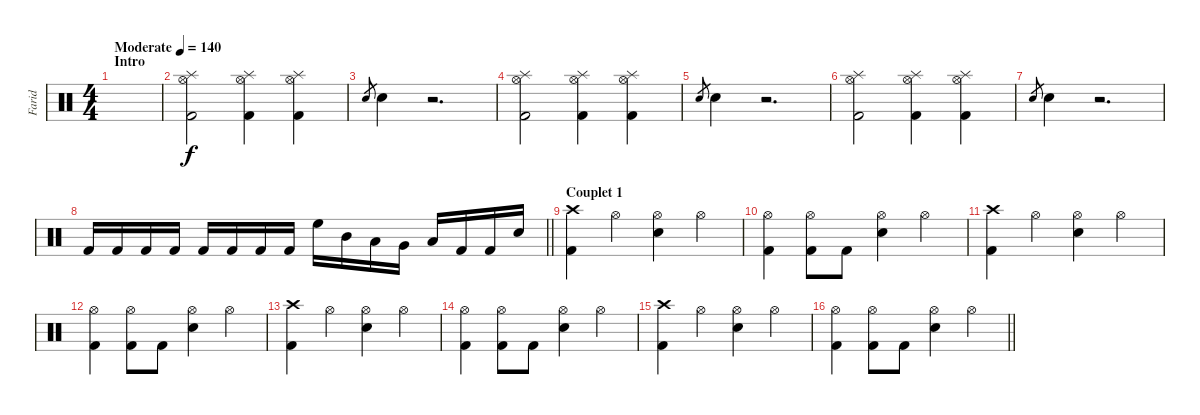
\track ("Farid" "Farid") {instrument percussion}
\staff {score}
\articulation defaults
\ts (4 4)
\section ("" "Intro")
\tempo (140 "Moderate")
\clef neutral
\ks c
|
("Hi-Hat (open)" "Splash (hit)" "Kick (hit) 2").2 ("Hi-Hat (open)" "Splash (hit)" "Kick (hit) 2").4 ("Hi-Hat (open)" "Splash (hit)" "Kick (hit) 2").4 |
"Snare (hit) 2".8{gr} "Snare (hit) 2".4 r.2{d} |
("Hi-Hat (open)" "Splash (hit)" "Kick (hit) 2").2 ("Hi-Hat (open)" "Splash (hit)" "Kick (hit) 2").4 ("Hi-Hat (open)" "Splash (hit)" "Kick (hit) 2").4 |
"Snare (hit) 2".8{gr} "Snare (hit) 2".4 r.2{d} |
("Hi-Hat (open)" "Splash (hit)" "Kick (hit) 2").2 ("Hi-Hat (open)" "Splash (hit)" "Kick (hit) 2").4 ("Hi-Hat (open)" "Splash (hit)" "Kick (hit) 2").4 |
"Snare (hit) 2".8{gr} "Snare (hit) 2".4 r.2{d} |
\barLineRight lightlight "Kick (hit) 2".16 "Kick (hit) 2".16 "Kick (hit) 2".16 "Kick (hit) 2".16 "Kick (hit) 2".16 "Kick (hit) 2".16 "Kick (hit) 2".16 "Kick (hit) 2".16 "High Floor Tom (hit)".16 "Mid Tom (hit)".16 "Low Tom (hit)".16 "Very Low Tom (hit)".16 "Low Floor Tom (hit)".16 "Kick (hit) 2".16 "Kick (hit) 2".16 "Snare (hit) 2".16
|
\section ("" "Couplet 1")
("Crash high (hit)" "Kick (hit) 2").4 "Hi-Hat (open)".4 ("Hi-Hat (open)" "Snare (hit) 2").4 "Hi-Hat (open)".4 |
("Hi-Hat (open)" "Kick (hit) 2").4 ("Hi-Hat (open)" "Kick (hit) 2").8 "Kick (hit) 2".8 ("Hi-Hat (open)" "Snare (hit) 2").4 "Hi-Hat (open)".4 |
("Crash high (hit)" "Kick (hit) 2").4 "Hi-Hat (open)".4 ("Hi-Hat (open)" "Snare (hit) 2").4 "Hi-Hat (open)".4 |
("Hi-Hat (open)" "Kick (hit) 2").4 ("Hi-Hat (open)" "Kick (hit) 2").8 "Kick (hit) 2".8 ("Hi-Hat (open)" "Snare (hit) 2").4 "Hi-Hat (open)".4 |
("Crash high (hit)" "Kick (hit) 2").4 "Hi-Hat (open)".4 ("Hi-Hat (open)" "Snare (hit) 2").4 "Hi-Hat (open)".4 |
("Hi-Hat (open)" "Kick (hit) 2").4 ("Hi-Hat (open)" "Kick (hit) 2").8 "Kick (hit) 2".8 ("Hi-Hat (open)" "Snare (hit) 2").4 "Hi-Hat (open)".4 |
("Crash high (hit)" "Kick (hit) 2").4 "Hi-Hat (open)".4 ("Hi-Hat (open)" "Snare (hit) 2").4 "Hi-Hat (open)".4 |
\barLineRight lightlight
("Hi-Hat (open)" "Kick (hit) 2").4 ("Hi-Hat (open)" "Kick (hit) 2").8 "Kick (hit) 2".8 ("Hi-Hat (open)" "Snare (hit) 2").4 "Hi-Hat (open)".4
